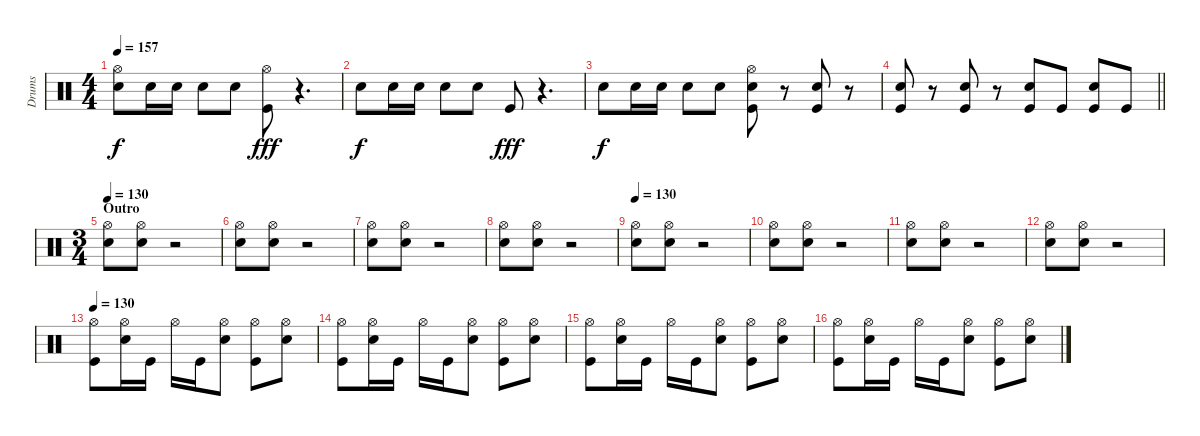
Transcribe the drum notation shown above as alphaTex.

\track ("Drums" "Drums") {instrument percussion}
\staff {score}
\articulation defaults
\ts (4 4)
\tempo 157
\clef neutral
\ks c
("Hi-Hat (open)" "Snare (hit) 2").8{dy f} "Snare (hit) 2".16 "Snare (hit) 2".16 "Snare (hit) 2".8 "Snare (hit) 2".8 ("Hi-Hat (open)" "Kick (hit)").8{dy fff} r.4{d} |
"Snare (hit) 2".8{dy f} "Snare (hit) 2".16 "Snare (hit) 2".16 "Snare (hit) 2".8 "Snare (hit) 2".8 "Kick (hit)".8{dy fff} r.4{d} |
"Snare (hit) 2".8{dy f} "Snare (hit) 2".16 "Snare (hit) 2".16 "Snare (hit) 2".8 "Snare (hit) 2".8 ("Hi-Hat (open)" "Kick (hit)" "Snare (hit) 2").8 r.8 ("Kick (hit)" "Snare (hit) 2").8 r.8 |
\barLineRight lightlight
("Kick (hit)" "Snare (hit) 2").8 r.8 ("Kick (hit)" "Snare (hit) 2").8 r.8 ("Kick (hit)" "Snare (hit) 2").8 "Kick (hit)".8 ("Kick (hit)" "Snare (hit) 2").8 "Kick (hit)".8 |
\ts (3 4)
\section ("" "Outro")
\tempo 130
("Hi-Hat (open)" "Snare (hit) 2").8 ("Hi-Hat (open)" "Snare (hit) 2").8 r.2 |
("Hi-Hat (open)" "Snare (hit) 2").8 ("Hi-Hat (open)" "Snare (hit) 2").8 r.2 |
("Hi-Hat (open)" "Snare (hit) 2").8 ("Hi-Hat (open)" "Snare (hit) 2").8 r.2 |
("Hi-Hat (open)" "Snare (hit) 2").8 ("Hi-Hat (open)" "Snare (hit) 2").8 r.2 |
\tempo 130
("Hi-Hat (open)" "Snare (hit) 2").8 ("Hi-Hat (open)" "Snare (hit) 2").8 r.2 |
("Hi-Hat (open)" "Snare (hit) 2").8 ("Hi-Hat (open)" "Snare (hit) 2").8 r.2 |
("Hi-Hat (open)" "Snare (hit) 2").8 ("Hi-Hat (open)" "Snare (hit) 2").8 r.2 |
("Hi-Hat (open)" "Snare (hit) 2").8 ("Hi-Hat (open)" "Snare (hit) 2").8 r.2 |
\tempo 130
("Hi-Hat (open)" "Kick (hit)").8 ("Hi-Hat (open)" "Snare (hit) 2").16 "Kick (hit)".16 "Hi-Hat (open)".16 "Kick (hit)".16 ("Hi-Hat (open)" "Snare (hit) 2").8 ("Hi-Hat (open)" "Kick (hit)").8 ("Hi-Hat (open)" "Snare (hit) 2").8 |
("Hi-Hat (open)" "Kick (hit)").8 ("Hi-Hat (open)" "Snare (hit) 2").16 "Kick (hit)".16 "Hi-Hat (open)".16 "Kick (hit)".16 ("Hi-Hat (open)" "Snare (hit) 2").8 ("Hi-Hat (open)" "Kick (hit)").8 ("Hi-Hat (open)" "Snare (hit) 2").8 |
("Hi-Hat (open)" "Kick (hit)").8 ("Hi-Hat (open)" "Snare (hit) 2").16 "Kick (hit)".16 "Hi-Hat (open)".16 "Kick (hit)".16 ("Hi-Hat (open)" "Snare (hit) 2").8 ("Hi-Hat (open)" "Kick (hit)").8 ("Hi-Hat (open)" "Snare (hit) 2").8 |
("Hi-Hat (open)" "Kick (hit)").8 ("Hi-Hat (open)" "Snare (hit) 2").16 "Kick (hit)".16 "Hi-Hat (open)".16 "Kick (hit)".16 ("Hi-Hat (open)" "Snare (hit) 2").8 ("Hi-Hat (open)" "Kick (hit)").8 ("Hi-Hat (open)" "Snare (hit) 2").8
